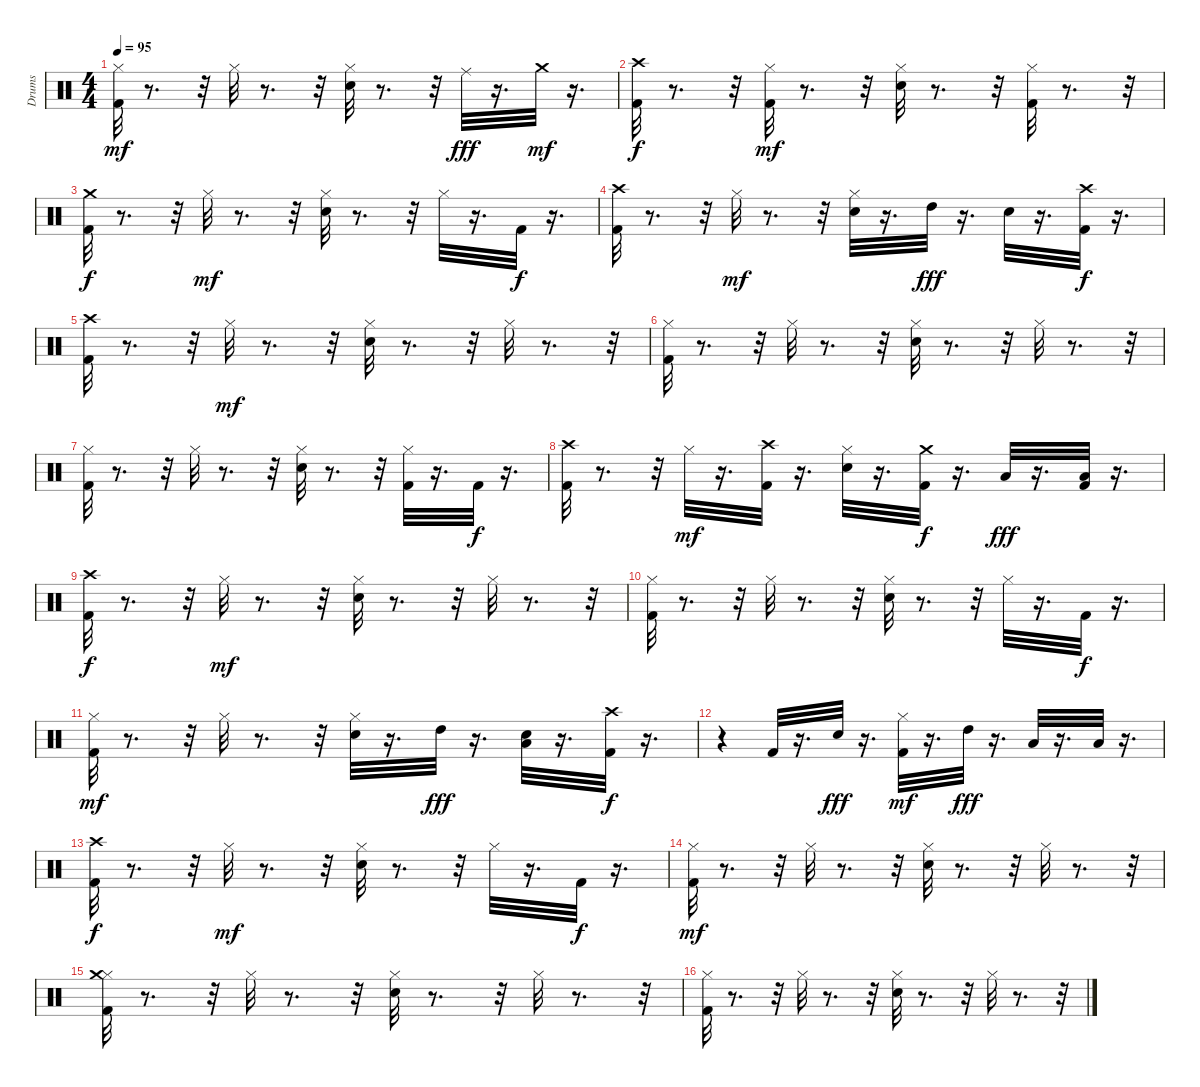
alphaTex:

\track ("Drums" "Drums") {instrument percussion}
\staff {score}
\articulation defaults
\ts (4 4)
\tempo 95
\clef neutral
\ks c
("Hi-Hat (closed)" "Kick (hit) 2").32{dy mf} r.8{d} r.32 "Hi-Hat (closed)".32 r.8{d} r.32 ("Electric Snare (hit)" "Hi-Hat (closed)").32 r.8{d} r.32 "Ride (middle)".32{dy fff} r.16{d} "Crash medium (hit)".32{dy mf} r.16{d} |
("Crash high (hit)" "Kick (hit) 2").32{dy f} r.8{d} r.32 ("Kick (hit) 2" "Hi-Hat (closed)").32{dy mf} r.8{d} r.32 ("Electric Snare (hit)" "Hi-Hat (closed)").32 r.8{d} r.32 ("Kick (hit) 2" "Hi-Hat (closed)").32 r.8{d} r.32 |
("Crash medium (hit)" "Kick (hit) 2").32{dy f} r.8{d} r.32 "Hi-Hat (closed)".32{dy mf} r.8{d} r.32 ("Electric Snare (hit)" "Hi-Hat (closed)").32 r.8{d} r.32 "Hi-Hat (closed)".32 r.16{d} "Kick (hit) 2".32{dy f} r.16{d} |
("Crash high (hit)" "Kick (hit) 2").32 r.8{d} r.32 "Hi-Hat (closed)".32{dy mf} r.8{d} r.32 ("Electric Snare (hit)" "Hi-Hat (closed)").32 r.16{d} "High Tom (hit)".32{dy fff} r.16{d} "Electric Snare (hit)".32 r.16{d} ("Crash high (hit)" "Kick (hit) 2").32{dy f} r.16{d} |
("Crash high (hit)" "Kick (hit) 2").32 r.8{d} r.32 "Hi-Hat (closed)".32{dy mf} r.8{d} r.32 ("Electric Snare (hit)" "Hi-Hat (closed)").32 r.8{d} r.32 "Hi-Hat (closed)".32 r.8{d} r.32 |
("Hi-Hat (closed)" "Kick (hit) 2").32 r.8{d} r.32 "Hi-Hat (closed)".32 r.8{d} r.32 ("Electric Snare (hit)" "Hi-Hat (closed)").32 r.8{d} r.32 "Hi-Hat (closed)".32 r.8{d} r.32 |
("Hi-Hat (closed)" "Kick (hit) 2").32 r.8{d} r.32 "Hi-Hat (closed)".32 r.8{d} r.32 ("Electric Snare (hit)" "Hi-Hat (closed)").32 r.8{d} r.32 ("Kick (hit) 2" "Hi-Hat (closed)").32 r.16{d} "Kick (hit) 2".32{dy f} r.16{d} |
("Crash high (hit)" "Kick (hit) 2").32 r.8{d} r.32 "Hi-Hat (closed)".32{dy mf} r.16{d} ("Crash high (hit)" "Kick (hit) 2").32 r.16{d} ("Electric Snare (hit)" "Hi-Hat (closed)").32 r.16{d} ("Crash medium (hit)" "Kick (hit) 2").32{dy f} r.16{d} "Low Tom (hit)".32{dy fff} r.16{d} ("Kick (hit) 2" "Low Floor Tom (hit)").32 r.16{d} |
("Crash high (hit)" "Kick (hit) 2").32{dy f} r.8{d} r.32 "Hi-Hat (closed)".32{dy mf} r.8{d} r.32 ("Electric Snare (hit)" "Hi-Hat (closed)").32 r.8{d} r.32 "Hi-Hat (closed)".32 r.8{d} r.32 |
("Hi-Hat (closed)" "Kick (hit) 2").32 r.8{d} r.32 "Hi-Hat (closed)".32 r.8{d} r.32 ("Electric Snare (hit)" "Hi-Hat (closed)").32 r.8{d} r.32 "Hi-Hat (closed)".32 r.16{d} "Kick (hit) 2".32{dy f} r.16{d} |
("Hi-Hat (closed)" "Kick (hit) 2").32{dy mf} r.8{d} r.32 "Hi-Hat (closed)".32 r.8{d} r.32 ("Electric Snare (hit)" "Hi-Hat (closed)").32 r.16{d} "High Tom (hit)".32{dy fff} r.16{d} ("Low Tom (hit)" "Electric Snare (hit)").32 r.16{d} ("Crash high (hit)" "Kick (hit) 2").32{dy f} r.16{d} |
r.4 "Kick (hit) 2".32 r.16{d} "Electric Snare (hit)".32{dy fff} r.16{d} ("Kick (hit) 2" "Hi-Hat (closed)").32{dy mf} r.16{d} "High Tom (hit)".32{dy fff} r.16{d} "Low Tom (hit)".32 r.16{d} "Low Floor Tom (hit)".32 r.16{d} |
("Kick (hit) 2" "Crash high (hit)").32{dy f} r.8{d} r.32 "Hi-Hat (closed)".32{dy mf} r.8{d} r.32 ("Electric Snare (hit)" "Hi-Hat (closed)").32 r.8{d} r.32 "Hi-Hat (closed)".32 r.16{d} "Kick (hit) 2".32{dy f} r.16{d} |
("Hi-Hat (closed)" "Kick (hit) 2").32{dy mf} r.8{d} r.32 "Hi-Hat (closed)".32 r.8{d} r.32 ("Electric Snare (hit)" "Hi-Hat (closed)").32 r.8{d} r.32 "Hi-Hat (closed)".32 r.8{d} r.32 |
("Hi-Hat (closed)" "Kick (hit) 2" "Crash medium (hit)").32 r.8{d} r.32 "Hi-Hat (closed)".32 r.8{d} r.32 ("Electric Snare (hit)" "Hi-Hat (closed)").32 r.8{d} r.32 "Hi-Hat (closed)".32 r.8{d} r.32 |
("Hi-Hat (closed)" "Kick (hit) 2").32 r.8{d} r.32 "Hi-Hat (closed)".32 r.8{d} r.32 ("Electric Snare (hit)" "Hi-Hat (closed)").32 r.8{d} r.32 "Hi-Hat (closed)".32 r.8{d} r.32
